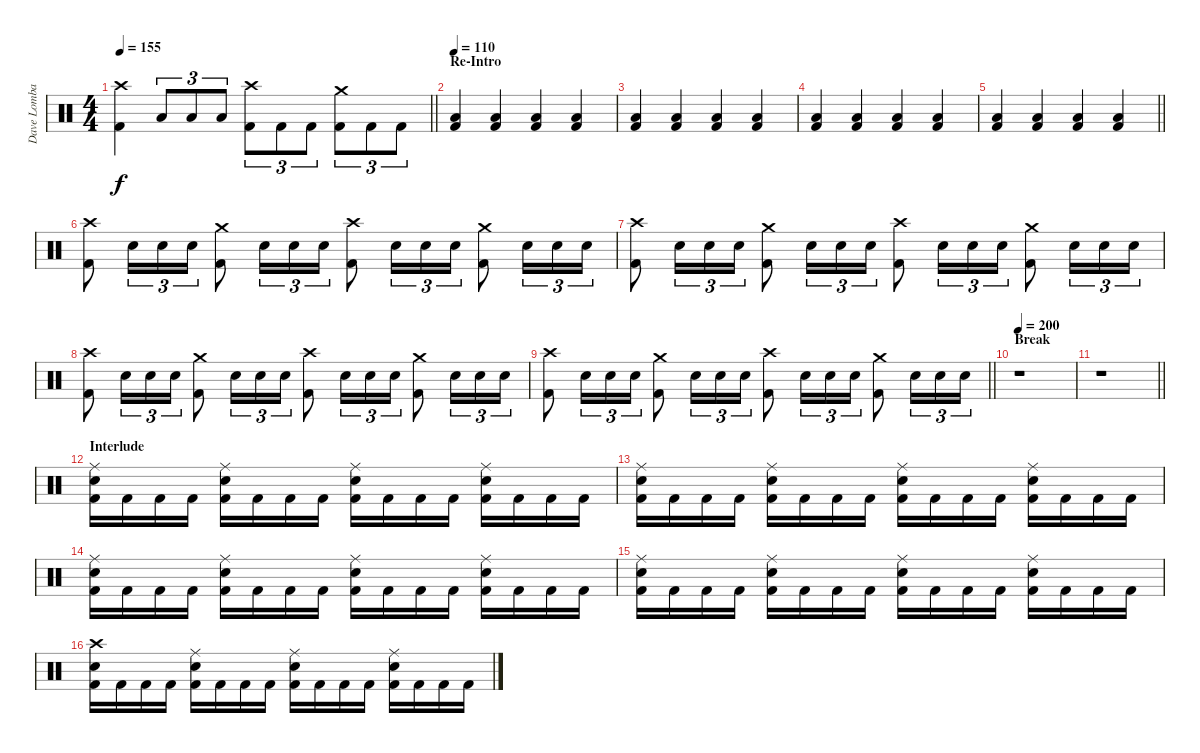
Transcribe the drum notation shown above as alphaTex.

\track ("Dave Lombardo (Drums)" "Dave Lomba") {instrument percussion}
\staff {score}
\articulation defaults
\ts (4 4)
\tempo 155
\clef neutral
\barLineRight lightlight
\ks c
("Crash high (hit)" "Kick (hit) 2").4{dy f} "Low Tom (hit)".8{tu (3 2)} "Low Tom (hit)".8{tu (3 2)} "Low Tom (hit)".8{tu (3 2)} ("Crash high (hit)" "Kick (hit) 2").8{tu (3 2)} "Kick (hit) 2".8{tu (3 2)} "Kick (hit) 2".8{tu (3 2)} ("Crash medium (hit)" "Kick (hit) 2").8{tu (3 2)} "Kick (hit) 2".8{tu (3 2)} "Kick (hit) 2".8{tu (3 2)} |
\section ("" "Re-Intro")
\tempo 110
("Low Tom (hit)" "Kick (hit) 2").4 ("Low Tom (hit)" "Kick (hit) 2").4 ("Low Tom (hit)" "Kick (hit) 2").4 ("Low Tom (hit)" "Kick (hit) 2").4 |
("Low Tom (hit)" "Kick (hit) 2").4 ("Low Tom (hit)" "Kick (hit) 2").4 ("Low Tom (hit)" "Kick (hit) 2").4 ("Low Tom (hit)" "Kick (hit) 2").4 |
("Low Tom (hit)" "Kick (hit) 2").4 ("Low Tom (hit)" "Kick (hit) 2").4 ("Low Tom (hit)" "Kick (hit) 2").4 ("Low Tom (hit)" "Kick (hit) 2").4 |
\barLineRight lightlight
("Low Tom (hit)" "Kick (hit) 2").4 ("Low Tom (hit)" "Kick (hit) 2").4 ("Low Tom (hit)" "Kick (hit) 2").4 ("Low Tom (hit)" "Kick (hit) 2").4 |
("Crash high (hit)" "Kick (hit) 2").8 "Snare (hit) 2".16{tu (3 2)} "Snare (hit) 2".16{tu (3 2)} "Snare (hit) 2".16{tu (3 2)} ("Crash medium (hit)" "Kick (hit) 2").8 "Snare (hit) 2".16{tu (3 2)} "Snare (hit) 2".16{tu (3 2)} "Snare (hit) 2".16{tu (3 2)} ("Crash high (hit)" "Kick (hit) 2").8 "Snare (hit) 2".16{tu (3 2)} "Snare (hit) 2".16{tu (3 2)} "Snare (hit) 2".16{tu (3 2)} ("Crash medium (hit)" "Kick (hit) 2").8 "Snare (hit) 2".16{tu (3 2)} "Snare (hit) 2".16{tu (3 2)} "Snare (hit) 2".16{tu (3 2)} |
("Crash high (hit)" "Kick (hit) 2").8 "Snare (hit) 2".16{tu (3 2)} "Snare (hit) 2".16{tu (3 2)} "Snare (hit) 2".16{tu (3 2)} ("Crash medium (hit)" "Kick (hit) 2").8 "Snare (hit) 2".16{tu (3 2)} "Snare (hit) 2".16{tu (3 2)} "Snare (hit) 2".16{tu (3 2)} ("Crash high (hit)" "Kick (hit) 2").8 "Snare (hit) 2".16{tu (3 2)} "Snare (hit) 2".16{tu (3 2)} "Snare (hit) 2".16{tu (3 2)} ("Crash medium (hit)" "Kick (hit) 2").8 "Snare (hit) 2".16{tu (3 2)} "Snare (hit) 2".16{tu (3 2)} "Snare (hit) 2".16{tu (3 2)} |
("Crash high (hit)" "Kick (hit) 2").8 "Snare (hit) 2".16{tu (3 2)} "Snare (hit) 2".16{tu (3 2)} "Snare (hit) 2".16{tu (3 2)} ("Crash medium (hit)" "Kick (hit) 2").8 "Snare (hit) 2".16{tu (3 2)} "Snare (hit) 2".16{tu (3 2)} "Snare (hit) 2".16{tu (3 2)} ("Crash high (hit)" "Kick (hit) 2").8 "Snare (hit) 2".16{tu (3 2)} "Snare (hit) 2".16{tu (3 2)} "Snare (hit) 2".16{tu (3 2)} ("Crash medium (hit)" "Kick (hit) 2").8 "Snare (hit) 2".16{tu (3 2)} "Snare (hit) 2".16{tu (3 2)} "Snare (hit) 2".16{tu (3 2)} |
\barLineRight lightlight
("Crash high (hit)" "Kick (hit) 2").8 "Snare (hit) 2".16{tu (3 2)} "Snare (hit) 2".16{tu (3 2)} "Snare (hit) 2".16{tu (3 2)} ("Crash medium (hit)" "Kick (hit) 2").8 "Snare (hit) 2".16{tu (3 2)} "Snare (hit) 2".16{tu (3 2)} "Snare (hit) 2".16{tu (3 2)} ("Crash high (hit)" "Kick (hit) 2").8 "Snare (hit) 2".16{tu (3 2)} "Snare (hit) 2".16{tu (3 2)} "Snare (hit) 2".16{tu (3 2)} ("Crash medium (hit)" "Kick (hit) 2").8 "Snare (hit) 2".16{tu (3 2)} "Snare (hit) 2".16{tu (3 2)} "Snare (hit) 2".16{tu (3 2)} |
\section ("" "Break")
\tempo 200
r.1 |
\barLineRight lightlight
r.1 |
\section ("" "Interlude")
("Ride (middle)" "Snare (hit) 2" "Kick (hit) 2").16 "Kick (hit) 2".16 "Kick (hit) 2".16 "Kick (hit) 2".16 ("Ride (middle)" "Snare (hit) 2" "Kick (hit) 2").16 "Kick (hit) 2".16 "Kick (hit) 2".16 "Kick (hit) 2".16 ("Ride (middle)" "Snare (hit) 2" "Kick (hit) 2").16 "Kick (hit) 2".16 "Kick (hit) 2".16 "Kick (hit) 2".16 ("Ride (middle)" "Snare (hit) 2" "Kick (hit) 2").16 "Kick (hit) 2".16 "Kick (hit) 2".16 "Kick (hit) 2".16 |
("Ride (middle)" "Snare (hit) 2" "Kick (hit) 2").16 "Kick (hit) 2".16 "Kick (hit) 2".16 "Kick (hit) 2".16 ("Ride (middle)" "Snare (hit) 2" "Kick (hit) 2").16 "Kick (hit) 2".16 "Kick (hit) 2".16 "Kick (hit) 2".16 ("Ride (middle)" "Snare (hit) 2" "Kick (hit) 2").16 "Kick (hit) 2".16 "Kick (hit) 2".16 "Kick (hit) 2".16 ("Ride (middle)" "Snare (hit) 2" "Kick (hit) 2").16 "Kick (hit) 2".16 "Kick (hit) 2".16 "Kick (hit) 2".16 |
("Ride (middle)" "Snare (hit) 2" "Kick (hit) 2").16 "Kick (hit) 2".16 "Kick (hit) 2".16 "Kick (hit) 2".16 ("Ride (middle)" "Snare (hit) 2" "Kick (hit) 2").16 "Kick (hit) 2".16 "Kick (hit) 2".16 "Kick (hit) 2".16 ("Ride (middle)" "Snare (hit) 2" "Kick (hit) 2").16 "Kick (hit) 2".16 "Kick (hit) 2".16 "Kick (hit) 2".16 ("Ride (middle)" "Snare (hit) 2" "Kick (hit) 2").16 "Kick (hit) 2".16 "Kick (hit) 2".16 "Kick (hit) 2".16 |
("Ride (middle)" "Snare (hit) 2" "Kick (hit) 2").16 "Kick (hit) 2".16 "Kick (hit) 2".16 "Kick (hit) 2".16 ("Ride (middle)" "Snare (hit) 2" "Kick (hit) 2").16 "Kick (hit) 2".16 "Kick (hit) 2".16 "Kick (hit) 2".16 ("Ride (middle)" "Snare (hit) 2" "Kick (hit) 2").16 "Kick (hit) 2".16 "Kick (hit) 2".16 "Kick (hit) 2".16 ("Ride (middle)" "Snare (hit) 2" "Kick (hit) 2").16 "Kick (hit) 2".16 "Kick (hit) 2".16 "Kick (hit) 2".16 |
("Crash high (hit)" "Snare (hit) 2" "Kick (hit) 2").16 "Kick (hit) 2".16 "Kick (hit) 2".16 "Kick (hit) 2".16 ("Ride (middle)" "Snare (hit) 2" "Kick (hit) 2").16 "Kick (hit) 2".16 "Kick (hit) 2".16 "Kick (hit) 2".16 ("Ride (middle)" "Snare (hit) 2" "Kick (hit) 2").16 "Kick (hit) 2".16 "Kick (hit) 2".16 "Kick (hit) 2".16 ("Ride (middle)" "Snare (hit) 2" "Kick (hit) 2").16 "Kick (hit) 2".16 "Kick (hit) 2".16 "Kick (hit) 2".16
